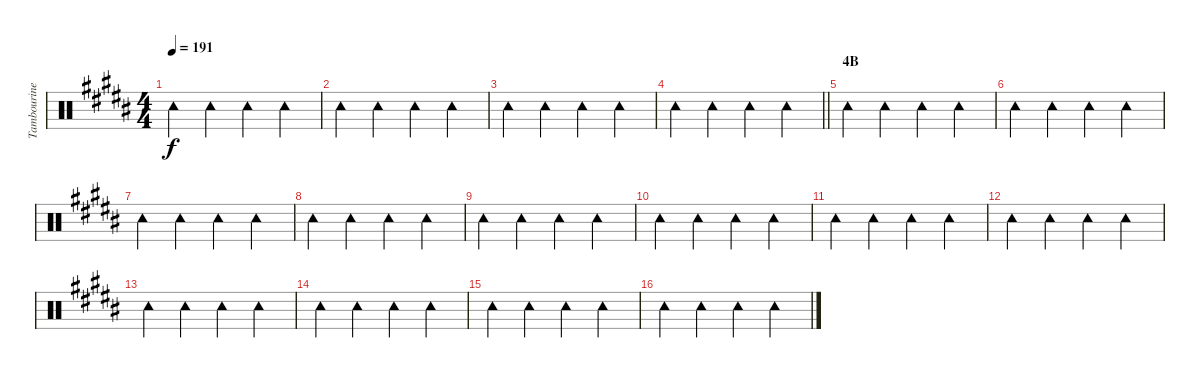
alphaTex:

\track ("Tambourine" "Tambourine") {instrument percussion}
\staff {score}
\articulation defaults
\ts (4 4)
\tempo 191
\clef neutral
\ks b "Tambourine (hit)".4{dy f} "Tambourine (hit)".4 "Tambourine (hit)".4 "Tambourine (hit)".4
|
"Tambourine (hit)".4 "Tambourine (hit)".4 "Tambourine (hit)".4 "Tambourine (hit)".4 |
"Tambourine (hit)".4 "Tambourine (hit)".4 "Tambourine (hit)".4 "Tambourine (hit)".4 |
\barLineRight lightlight "Tambourine (hit)".4 "Tambourine (hit)".4 "Tambourine (hit)".4 "Tambourine (hit)".4
|
\section ("" "4B")
"Tambourine (hit)".4 "Tambourine (hit)".4 "Tambourine (hit)".4 "Tambourine (hit)".4 |
"Tambourine (hit)".4 "Tambourine (hit)".4 "Tambourine (hit)".4 "Tambourine (hit)".4 |
"Tambourine (hit)".4 "Tambourine (hit)".4 "Tambourine (hit)".4 "Tambourine (hit)".4 |
"Tambourine (hit)".4 "Tambourine (hit)".4 "Tambourine (hit)".4 "Tambourine (hit)".4 |
"Tambourine (hit)".4 "Tambourine (hit)".4 "Tambourine (hit)".4 "Tambourine (hit)".4 |
"Tambourine (hit)".4 "Tambourine (hit)".4 "Tambourine (hit)".4 "Tambourine (hit)".4 |
"Tambourine (hit)".4 "Tambourine (hit)".4 "Tambourine (hit)".4 "Tambourine (hit)".4 |
"Tambourine (hit)".4 "Tambourine (hit)".4 "Tambourine (hit)".4 "Tambourine (hit)".4 |
"Tambourine (hit)".4 "Tambourine (hit)".4 "Tambourine (hit)".4 "Tambourine (hit)".4 |
"Tambourine (hit)".4 "Tambourine (hit)".4 "Tambourine (hit)".4 "Tambourine (hit)".4 |
"Tambourine (hit)".4 "Tambourine (hit)".4 "Tambourine (hit)".4 "Tambourine (hit)".4 |
"Tambourine (hit)".4 "Tambourine (hit)".4 "Tambourine (hit)".4 "Tambourine (hit)".4
